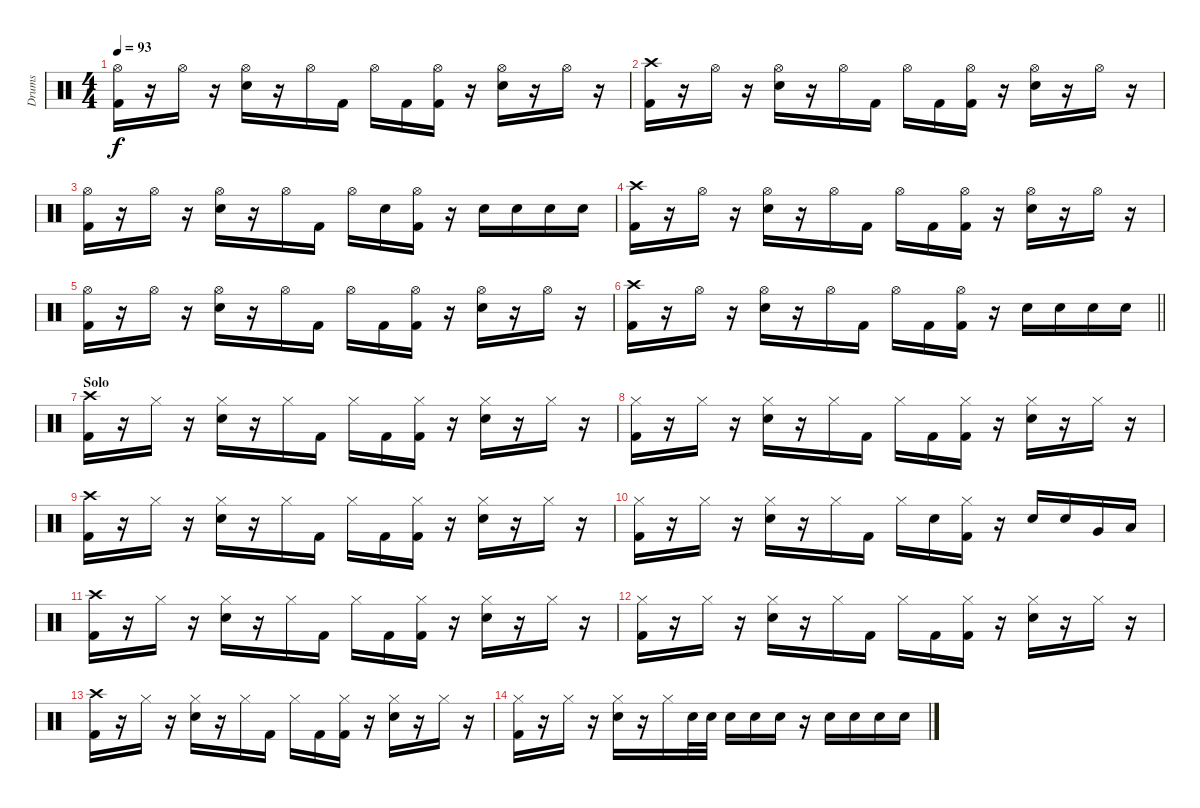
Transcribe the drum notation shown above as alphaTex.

\track ("Drums" "Drums") {instrument percussion}
\staff {score}
\articulation defaults
\ts (4 4)
\tempo 93
\clef neutral
\ks c
("Hi-Hat (open)" "Kick (hit) 2").16{dy f} r.16 "Hi-Hat (open)".16 r.16 ("Hi-Hat (open)" "Electric Snare (hit)").16 r.16 "Hi-Hat (open)".16 "Kick (hit) 2".16 "Hi-Hat (open)".16 "Kick (hit) 2".16 ("Hi-Hat (open)" "Kick (hit) 2").16 r.16 ("Hi-Hat (open)" "Electric Snare (hit)").16 r.16 "Hi-Hat (open)".16 r.16 |
("Crash high (hit)" "Kick (hit) 2").16 r.16 "Hi-Hat (open)".16 r.16 ("Hi-Hat (open)" "Electric Snare (hit)").16 r.16 "Hi-Hat (open)".16 "Kick (hit) 2".16 "Hi-Hat (open)".16 "Kick (hit) 2".16 ("Hi-Hat (open)" "Kick (hit) 2").16 r.16 ("Hi-Hat (open)" "Electric Snare (hit)").16 r.16 "Hi-Hat (open)".16 r.16 |
("Hi-Hat (open)" "Kick (hit) 2").16 r.16 "Hi-Hat (open)".16 r.16 ("Hi-Hat (open)" "Electric Snare (hit)").16 r.16 "Hi-Hat (open)".16 "Kick (hit) 2".16 "Hi-Hat (open)".16 "Electric Snare (hit)".16 ("Hi-Hat (open)" "Kick (hit) 2").16 r.16 "Electric Snare (hit)".16 "Electric Snare (hit)".16 "Electric Snare (hit)".16 "Electric Snare (hit)".16 |
("Crash high (hit)" "Kick (hit) 2").16 r.16 "Hi-Hat (open)".16 r.16 ("Hi-Hat (open)" "Electric Snare (hit)").16 r.16 "Hi-Hat (open)".16 "Kick (hit) 2".16 "Hi-Hat (open)".16 "Kick (hit) 2".16 ("Hi-Hat (open)" "Kick (hit) 2").16 r.16 ("Hi-Hat (open)" "Electric Snare (hit)").16 r.16 "Hi-Hat (open)".16 r.16 |
("Hi-Hat (open)" "Kick (hit) 2").16 r.16 "Hi-Hat (open)".16 r.16 ("Hi-Hat (open)" "Electric Snare (hit)").16 r.16 "Hi-Hat (open)".16 "Kick (hit) 2".16 "Hi-Hat (open)".16 "Kick (hit) 2".16 ("Hi-Hat (open)" "Kick (hit) 2").16 r.16 ("Hi-Hat (open)" "Electric Snare (hit)").16 r.16 "Hi-Hat (open)".16 r.16 |
\barLineRight lightlight
("Crash high (hit)" "Kick (hit) 2").16 r.16 "Hi-Hat (open)".16 r.16 ("Hi-Hat (open)" "Electric Snare (hit)").16 r.16 "Hi-Hat (open)".16 "Kick (hit) 2".16 "Hi-Hat (open)".16 "Kick (hit) 2".16 ("Hi-Hat (open)" "Kick (hit) 2").16 r.16 "Electric Snare (hit)".16 "Electric Snare (hit)".16 "Electric Snare (hit)".16 "Electric Snare (hit)".16 |
\section ("" "Solo")
("Crash high (hit)" "Kick (hit) 2").16 r.16 "Hi-Hat (closed)".16 r.16 ("Hi-Hat (closed)" "Electric Snare (hit)").16 r.16 "Hi-Hat (closed)".16 "Kick (hit) 2".16 "Hi-Hat (closed)".16 "Kick (hit) 2".16 ("Hi-Hat (closed)" "Kick (hit) 2").16 r.16 ("Hi-Hat (closed)" "Electric Snare (hit)").16 r.16 "Hi-Hat (closed)".16 r.16 |
("Hi-Hat (closed)" "Kick (hit) 2").16 r.16 "Hi-Hat (closed)".16 r.16 ("Hi-Hat (closed)" "Electric Snare (hit)").16 r.16 "Hi-Hat (closed)".16 "Kick (hit) 2".16 "Hi-Hat (closed)".16 "Kick (hit) 2".16 ("Hi-Hat (closed)" "Kick (hit) 2").16 r.16 ("Hi-Hat (closed)" "Electric Snare (hit)").16 r.16 "Hi-Hat (closed)".16 r.16 |
("Crash high (hit)" "Kick (hit) 2").16 r.16 "Hi-Hat (closed)".16 r.16 ("Hi-Hat (closed)" "Electric Snare (hit)").16 r.16 "Hi-Hat (closed)".16 "Kick (hit) 2".16 "Hi-Hat (closed)".16 "Kick (hit) 2".16 ("Hi-Hat (closed)" "Kick (hit) 2").16 r.16 ("Hi-Hat (closed)" "Electric Snare (hit)").16 r.16 "Hi-Hat (closed)".16 r.16 |
("Hi-Hat (closed)" "Kick (hit) 2").16 r.16 "Hi-Hat (closed)".16 r.16 ("Hi-Hat (closed)" "Electric Snare (hit)").16 r.16 "Hi-Hat (closed)".16 "Kick (hit) 2".16 "Hi-Hat (closed)".16 "Electric Snare (hit)".16 ("Hi-Hat (closed)" "Kick (hit) 2").16 r.16 "Electric Snare (hit)".16 "Electric Snare (hit)".16 "Very Low Tom (hit)".16 "Low Tom (hit)".16 |
("Crash high (hit)" "Kick (hit) 2").16 r.16 "Hi-Hat (closed)".16 r.16 ("Hi-Hat (closed)" "Electric Snare (hit)").16 r.16 "Hi-Hat (closed)".16 "Kick (hit) 2".16 "Hi-Hat (closed)".16 "Kick (hit) 2".16 ("Hi-Hat (closed)" "Kick (hit) 2").16 r.16 ("Hi-Hat (closed)" "Electric Snare (hit)").16 r.16 "Hi-Hat (closed)".16 r.16 |
("Hi-Hat (closed)" "Kick (hit) 2").16 r.16 "Hi-Hat (closed)".16 r.16 ("Hi-Hat (closed)" "Electric Snare (hit)").16 r.16 "Hi-Hat (closed)".16 "Kick (hit) 2".16 "Hi-Hat (closed)".16 "Kick (hit) 2".16 ("Hi-Hat (closed)" "Kick (hit) 2").16 r.16 ("Hi-Hat (closed)" "Electric Snare (hit)").16 r.16 "Hi-Hat (closed)".16 r.16 |
("Crash high (hit)" "Kick (hit) 2").16 r.16 "Hi-Hat (closed)".16 r.16 ("Hi-Hat (closed)" "Electric Snare (hit)").16 r.16 "Hi-Hat (closed)".16 "Kick (hit) 2".16 "Hi-Hat (closed)".16 "Kick (hit) 2".16 ("Hi-Hat (closed)" "Kick (hit) 2").16 r.16 ("Hi-Hat (closed)" "Electric Snare (hit)").16 r.16 "Hi-Hat (closed)".16 r.16 |
("Hi-Hat (closed)" "Kick (hit) 2").16 r.16 "Hi-Hat (closed)".16 r.16 ("Hi-Hat (closed)" "Electric Snare (hit)").16 r.16 "Hi-Hat (closed)".16 "Electric Snare (hit)".32 "Electric Snare (hit)".32 "Electric Snare (hit)".16 "Electric Snare (hit)".16 "Electric Snare (hit)".16 r.16 "Electric Snare (hit)".16 "Electric Snare (hit)".16 "Electric Snare (hit)".16 "Electric Snare (hit)".16
